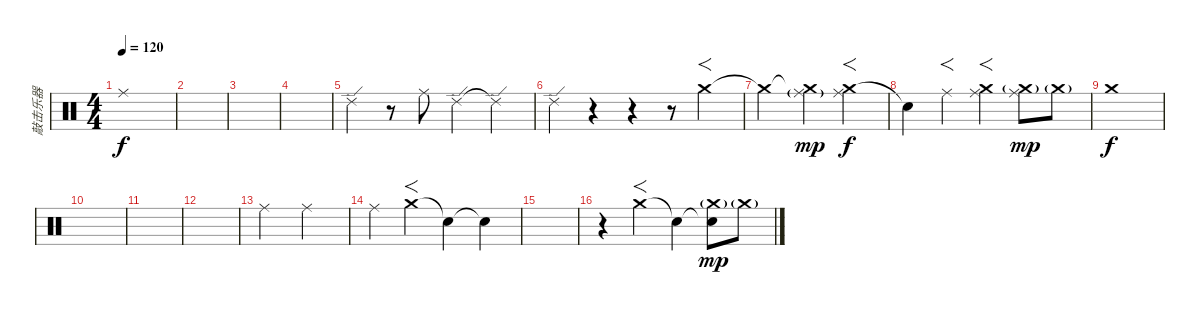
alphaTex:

\track ("敲击乐器" "敲击乐器") {instrument percussion}
\staff {score}
\articulation defaults
\ts (4 4)
\tempo 120
\clef neutral
\ks c "Ride (middle)".1{dy f}
|
|
|
|
"Ride (edge) 2".4 r.8 "Ride (middle)".8 "Ride (edge) 2".4 "Ride (edge) 2"{t}.4 |
"Ride (edge) 2".4 r.4 r.4 r.8 "Crash medium (hit)".4{f} |
"Crash medium (hit)"{t}.2 ("Crash medium (hit)"{t} "Ride (middle)"{g}).4{dy mp} ("Crash medium (hit)" "Ride (middle)").4{f dy f} |
"Snare (hit)"{t}.4 "Ride (middle)".4{f} ("Crash medium (hit)" "Ride (middle)").4{f} ("Crash medium (hit)"{g} "Ride (middle)").8{dy mp} "Crash medium (hit)"{g}.8 |
"Crash medium (hit)".1{dy f} |
|
|
|
"Ride (middle)".2 "Ride (middle)".2 |
"Ride (middle)".4 "Crash medium (hit)".4{f} "Snare (hit)"{t}.4 "Snare (hit)"{t}.4 |
|
r.4 "Crash medium (hit)".4{f} "Snare (hit)"{t}.4 ("Snare (hit)"{t} "Crash medium (hit)"{g}).8{dy mp} "Crash medium (hit)"{g}.8
